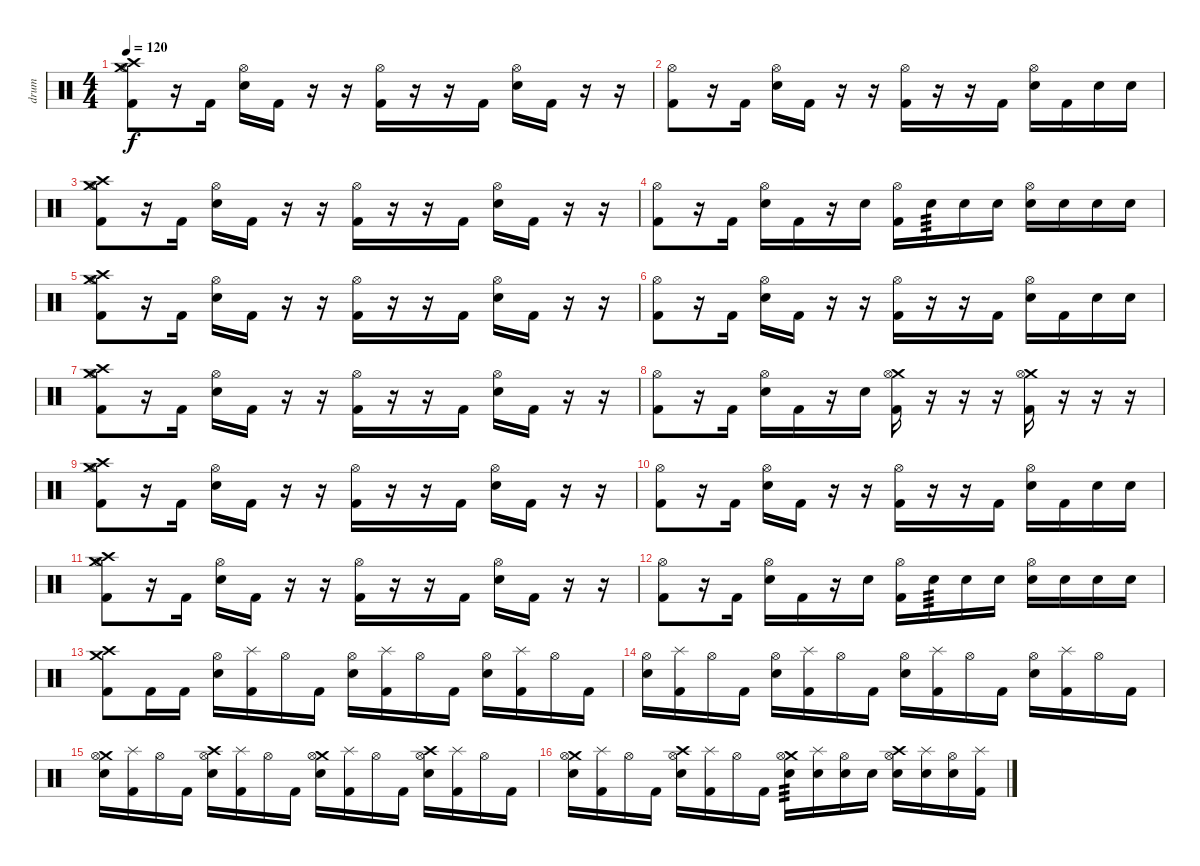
\track ("drum" "drum") {instrument percussion}
\staff {score}
\articulation defaults
\ts (4 4)
\tempo 120
\clef neutral
\ks c
("Crash medium (hit)" "Hi-Hat (open)" "Crash high (hit)" "Kick (hit) 2").8{dy f} r.16 "Kick (hit) 2".16 ("Hi-Hat (open)" "Electric Snare (hit)").16 "Kick (hit) 2".16 r.16 r.16 ("Hi-Hat (open)" "Kick (hit) 2").16 r.16 r.16 "Kick (hit) 2".16 ("Hi-Hat (open)" "Electric Snare (hit)").16 "Kick (hit) 2".16 r.16 r.16 |
("Hi-Hat (open)" "Kick (hit) 2").8 r.16 "Kick (hit) 2".16 ("Hi-Hat (open)" "Electric Snare (hit)").16 "Kick (hit) 2".16 r.16 r.16 ("Hi-Hat (open)" "Kick (hit) 2").16 r.16 r.16 "Kick (hit) 2".16 ("Hi-Hat (open)" "Electric Snare (hit)").16 "Kick (hit) 2".16 "Electric Snare (hit)".16 "Electric Snare (hit)".16 |
("Crash medium (hit)" "Hi-Hat (open)" "Crash high (hit)" "Kick (hit) 2").8 r.16 "Kick (hit) 2".16 ("Hi-Hat (open)" "Electric Snare (hit)").16 "Kick (hit) 2".16 r.16 r.16 ("Hi-Hat (open)" "Kick (hit) 2").16 r.16 r.16 "Kick (hit) 2".16 ("Hi-Hat (open)" "Electric Snare (hit)").16 "Kick (hit) 2".16 r.16 r.16 |
("Hi-Hat (open)" "Kick (hit) 2").8 r.16 "Kick (hit) 2".16 ("Hi-Hat (open)" "Electric Snare (hit)").16 "Kick (hit) 2".16 r.16 "Electric Snare (hit)".16 ("Hi-Hat (open)" "Kick (hit) 2").16 "Electric Snare (hit)".16{tp 3} "Electric Snare (hit)".16 "Electric Snare (hit)".16 ("Hi-Hat (open)" "Electric Snare (hit)").16 "Electric Snare (hit)".16 "Electric Snare (hit)".16 "Electric Snare (hit)".16 |
("Crash medium (hit)" "Hi-Hat (open)" "Crash high (hit)" "Kick (hit) 2").8 r.16 "Kick (hit) 2".16 ("Hi-Hat (open)" "Electric Snare (hit)").16 "Kick (hit) 2".16 r.16 r.16 ("Hi-Hat (open)" "Kick (hit) 2").16 r.16 r.16 "Kick (hit) 2".16 ("Hi-Hat (open)" "Electric Snare (hit)").16 "Kick (hit) 2".16 r.16 r.16 |
("Hi-Hat (open)" "Kick (hit) 2").8 r.16 "Kick (hit) 2".16 ("Hi-Hat (open)" "Electric Snare (hit)").16 "Kick (hit) 2".16 r.16 r.16 ("Hi-Hat (open)" "Kick (hit) 2").16 r.16 r.16 "Kick (hit) 2".16 ("Hi-Hat (open)" "Electric Snare (hit)").16 "Kick (hit) 2".16 "Electric Snare (hit)".16 "Electric Snare (hit)".16 |
("Crash medium (hit)" "Hi-Hat (open)" "Crash high (hit)" "Kick (hit) 2").8 r.16 "Kick (hit) 2".16 ("Hi-Hat (open)" "Electric Snare (hit)").16 "Kick (hit) 2".16 r.16 r.16 ("Hi-Hat (open)" "Kick (hit) 2").16 r.16 r.16 "Kick (hit) 2".16 ("Hi-Hat (open)" "Electric Snare (hit)").16 "Kick (hit) 2".16 r.16 r.16 |
("Hi-Hat (open)" "Kick (hit) 2").8 r.16 "Kick (hit) 2".16 ("Hi-Hat (open)" "Electric Snare (hit)").16 "Kick (hit) 2".16 r.16 "Electric Snare (hit)".16 ("Crash medium (hit)" "Hi-Hat (open)" "Kick (hit) 2").16 r.16 r.16 r.16 ("Crash medium (hit)" "Hi-Hat (open)" "Kick (hit) 2").16 r.16 r.16 r.16 |
("Crash medium (hit)" "Hi-Hat (open)" "Crash high (hit)" "Kick (hit) 2").8 r.16 "Kick (hit) 2".16 ("Hi-Hat (open)" "Electric Snare (hit)").16 "Kick (hit) 2".16 r.16 r.16 ("Hi-Hat (open)" "Kick (hit) 2").16 r.16 r.16 "Kick (hit) 2".16 ("Hi-Hat (open)" "Electric Snare (hit)").16 "Kick (hit) 2".16 r.16 r.16 |
("Hi-Hat (open)" "Kick (hit) 2").8 r.16 "Kick (hit) 2".16 ("Hi-Hat (open)" "Electric Snare (hit)").16 "Kick (hit) 2".16 r.16 r.16 ("Hi-Hat (open)" "Kick (hit) 2").16 r.16 r.16 "Kick (hit) 2".16 ("Hi-Hat (open)" "Electric Snare (hit)").16 "Kick (hit) 2".16 "Electric Snare (hit)".16 "Electric Snare (hit)".16 |
("Crash medium (hit)" "Hi-Hat (open)" "Crash high (hit)" "Kick (hit) 2").8 r.16 "Kick (hit) 2".16 ("Hi-Hat (open)" "Electric Snare (hit)").16 "Kick (hit) 2".16 r.16 r.16 ("Hi-Hat (open)" "Kick (hit) 2").16 r.16 r.16 "Kick (hit) 2".16 ("Hi-Hat (open)" "Electric Snare (hit)").16 "Kick (hit) 2".16 r.16 r.16 |
("Hi-Hat (open)" "Kick (hit) 2").8 r.16 "Kick (hit) 2".16 ("Hi-Hat (open)" "Electric Snare (hit)").16 "Kick (hit) 2".16 r.16 "Electric Snare (hit)".16 ("Hi-Hat (open)" "Kick (hit) 2").16 "Electric Snare (hit)".16{tp 3} "Electric Snare (hit)".16 "Electric Snare (hit)".16 ("Hi-Hat (open)" "Electric Snare (hit)").16 "Electric Snare (hit)".16 "Electric Snare (hit)".16 "Electric Snare (hit)".16 |
("Crash medium (hit)" "Crash high (hit)" "Kick (hit) 2").8 "Kick (hit) 2".16 "Kick (hit) 2".16 ("Hi-Hat (open)" "Electric Snare (hit)").16 ("Splash (hit)" "Kick (hit) 2").16 "Hi-Hat (open)".16 "Kick (hit) 2".16 ("Hi-Hat (open)" "Electric Snare (hit)").16 ("Splash (hit)" "Kick (hit) 2").16 "Hi-Hat (open)".16 "Kick (hit) 2".16 ("Hi-Hat (open)" "Electric Snare (hit)").16 ("Splash (hit)" "Kick (hit) 2").16 "Hi-Hat (open)".16 "Kick (hit) 2".16 |
("Hi-Hat (open)" "Electric Snare (hit)").16 ("Splash (hit)" "Kick (hit) 2").16 "Hi-Hat (open)".16 "Kick (hit) 2".16 ("Hi-Hat (open)" "Electric Snare (hit)").16 ("Splash (hit)" "Kick (hit) 2").16 "Hi-Hat (open)".16 "Kick (hit) 2".16 ("Hi-Hat (open)" "Electric Snare (hit)").16 ("Splash (hit)" "Kick (hit) 2").16 "Hi-Hat (open)".16 "Kick (hit) 2".16 ("Hi-Hat (open)" "Electric Snare (hit)").16 ("Splash (hit)" "Kick (hit) 2").16 "Hi-Hat (open)".16 "Kick (hit) 2".16 |
("Crash medium (hit)" "Hi-Hat (open)" "Electric Snare (hit)").16 ("Splash (hit)" "Kick (hit) 2").16 "Hi-Hat (open)".16 "Kick (hit) 2".16 ("Crash high (hit)" "Hi-Hat (open)" "Electric Snare (hit)").16 ("Splash (hit)" "Kick (hit) 2").16 "Hi-Hat (open)".16 "Kick (hit) 2".16 ("Crash medium (hit)" "Hi-Hat (open)" "Electric Snare (hit)").16 ("Splash (hit)" "Kick (hit) 2").16 "Hi-Hat (open)".16 "Kick (hit) 2".16 ("Crash high (hit)" "Hi-Hat (open)" "Electric Snare (hit)").16 ("Splash (hit)" "Kick (hit) 2").16 "Hi-Hat (open)".16 "Kick (hit) 2".16 |
("Crash medium (hit)" "Hi-Hat (open)" "Electric Snare (hit)").16 ("Splash (hit)" "Kick (hit) 2").16 "Hi-Hat (open)".16 "Kick (hit) 2".16 ("Crash high (hit)" "Hi-Hat (open)" "Electric Snare (hit)").16 ("Splash (hit)" "Kick (hit) 2").16 "Hi-Hat (open)".16 "Kick (hit) 2".16 ("Crash medium (hit)" "Hi-Hat (open)" "Electric Snare (hit)").16{tp 3} ("Splash (hit)" "Electric Snare (hit)").16 ("Hi-Hat (open)" "Electric Snare (hit)").16 "Electric Snare (hit)".16 ("Crash high (hit)" "Hi-Hat (open)" "Electric Snare (hit)").16 ("Splash (hit)" "Electric Snare (hit)").16 ("Hi-Hat (open)" "Electric Snare (hit)").16 ("Splash (hit)" "Kick (hit) 2").16
